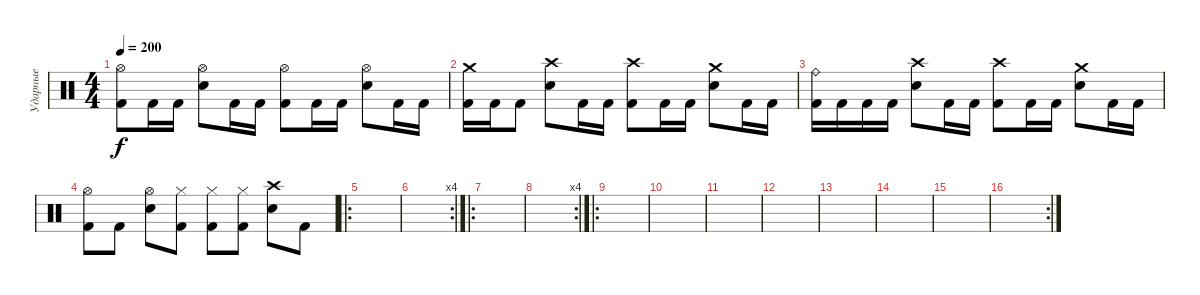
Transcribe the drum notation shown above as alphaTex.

\track ("Ударные" "Ударные") {instrument percussion}
\staff {score}
\articulation defaults
\ts (4 4)
\tempo 200
\clef neutral
\ks c
("Hi-Hat (open)" "Kick (hit) 2").8{dy f} "Kick (hit) 2".16 "Kick (hit) 2".16 ("Hi-Hat (open)" "Electric Snare (hit)").8 "Kick (hit) 2".16 "Kick (hit) 2".16 ("Hi-Hat (open)" "Kick (hit) 2").8 "Kick (hit) 2".16 "Kick (hit) 2".16 ("Hi-Hat (open)" "Electric Snare (hit)").8 "Kick (hit) 2".16 "Kick (hit) 2".16 |
("Crash medium (hit)" "Kick (hit) 2").16 "Kick (hit) 2".16 "Kick (hit) 2".8 ("Crash high (hit)" "Electric Snare (hit)").8 "Kick (hit) 2".16 "Kick (hit) 2".16 ("Crash high (hit)" "Kick (hit) 2").8 "Kick (hit) 2".16 "Kick (hit) 2".16 ("Crash medium (hit)" "Electric Snare (hit)").8 "Kick (hit) 2".16 "Kick (hit) 2".16 |
("Ride (bell)" "Kick (hit) 2").16 "Kick (hit) 2".16 "Kick (hit) 2".16 "Kick (hit) 2".16 ("Crash high (hit)" "Electric Snare (hit)").8 "Kick (hit) 2".16 "Kick (hit) 2".16 ("Crash high (hit)" "Kick (hit) 2").8 "Kick (hit) 2".16 "Kick (hit) 2".16 ("Crash medium (hit)" "Electric Snare (hit)").8 "Kick (hit) 2".16 "Kick (hit) 2".16 |
("Hi-Hat (open)" "Kick (hit) 2").8 "Kick (hit) 2".8 ("Hi-Hat (open)" "Electric Snare (hit)").8 ("Hi-Hat (closed)" "Kick (hit) 2").8 ("Hi-Hat (closed)" "Kick (hit) 2").8 ("Hi-Hat (closed)" "Kick (hit) 2").8 ("Crash high (hit)" "Electric Snare (hit)").8 "Kick (hit) 2".8 |
\ro
|
\rc 4
|
\ro
|
\rc 4
|
\ro
|
|
|
|
|
|
|
\rc 2
